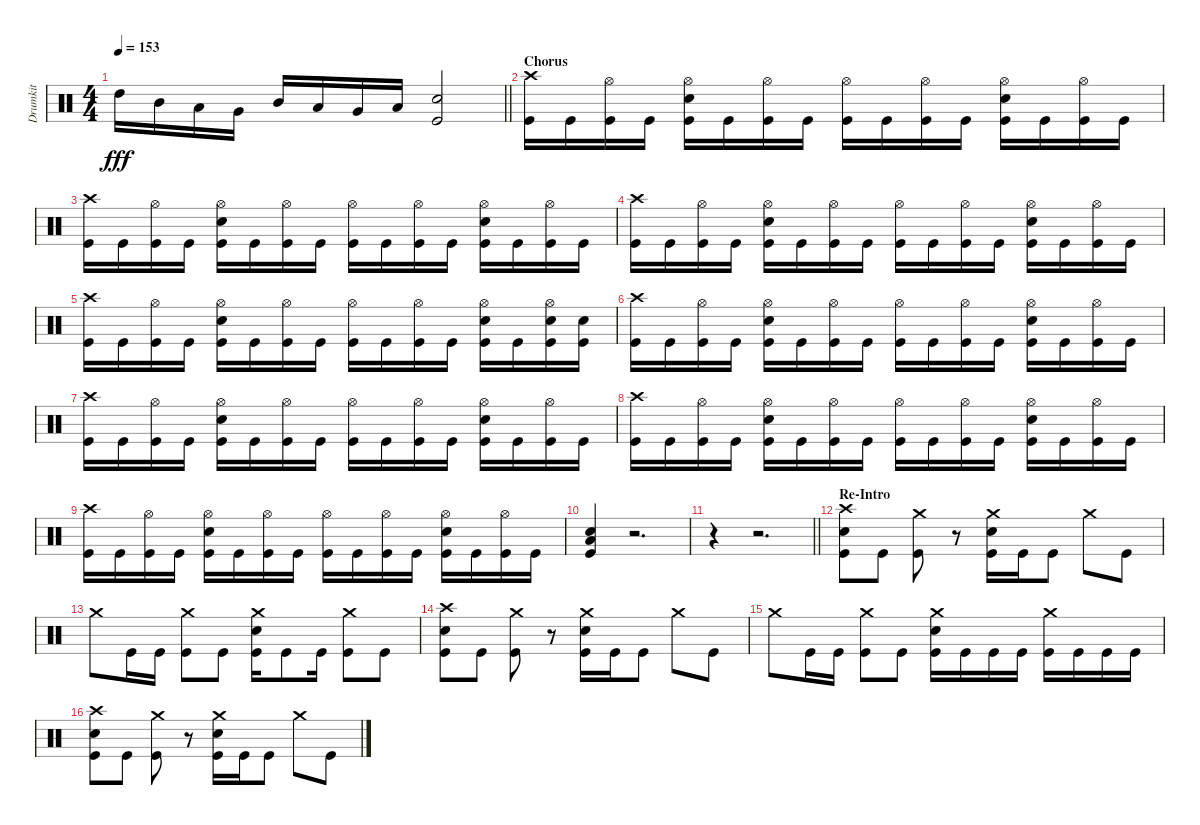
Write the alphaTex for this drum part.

\track ("Drumkit" "Drumkit") {instrument percussion}
\staff {score}
\articulation defaults
\ts (4 4)
\tempo 153
\clef neutral
\barLineRight lightlight
\ks c "High Tom (hit)".16{dy fff} "Mid Tom (hit)".16 "Low Tom (hit)".16 "Very Low Tom (hit)".16 "Mid Tom (hit)".16 "Low Tom (hit)".16 "Very Low Tom (hit)".16 "Low Floor Tom (hit)".16
("Snare (hit) 2" "Kick (hit)").2 |
\section ("" "Chorus")
("Crash high (hit)" "Kick (hit)").16 "Kick (hit)".16 ("Hi-Hat (open)" "Kick (hit)").16 "Kick (hit)".16 ("Hi-Hat (open)" "Snare (hit) 2" "Kick (hit)").16 "Kick (hit)".16 ("Hi-Hat (open)" "Kick (hit)").16 "Kick (hit)".16 ("Hi-Hat (open)" "Kick (hit)").16 "Kick (hit)".16 ("Hi-Hat (open)" "Kick (hit)").16 "Kick (hit)".16 ("Hi-Hat (open)" "Snare (hit) 2" "Kick (hit)").16 "Kick (hit)".16 ("Hi-Hat (open)" "Kick (hit)").16 "Kick (hit)".16 |
("Crash high (hit)" "Kick (hit)").16 "Kick (hit)".16 ("Hi-Hat (open)" "Kick (hit)").16 "Kick (hit)".16 ("Hi-Hat (open)" "Snare (hit) 2" "Kick (hit)").16 "Kick (hit)".16 ("Hi-Hat (open)" "Kick (hit)").16 "Kick (hit)".16 ("Hi-Hat (open)" "Kick (hit)").16 "Kick (hit)".16 ("Hi-Hat (open)" "Kick (hit)").16 "Kick (hit)".16 ("Hi-Hat (open)" "Snare (hit) 2" "Kick (hit)").16 "Kick (hit)".16 ("Hi-Hat (open)" "Kick (hit)").16 "Kick (hit)".16 |
("Crash high (hit)" "Kick (hit)").16 "Kick (hit)".16 ("Hi-Hat (open)" "Kick (hit)").16 "Kick (hit)".16 ("Hi-Hat (open)" "Snare (hit) 2" "Kick (hit)").16 "Kick (hit)".16 ("Hi-Hat (open)" "Kick (hit)").16 "Kick (hit)".16 ("Hi-Hat (open)" "Kick (hit)").16 "Kick (hit)".16 ("Hi-Hat (open)" "Kick (hit)").16 "Kick (hit)".16 ("Hi-Hat (open)" "Snare (hit) 2" "Kick (hit)").16 "Kick (hit)".16 ("Hi-Hat (open)" "Kick (hit)").16 "Kick (hit)".16 |
("Crash high (hit)" "Kick (hit)").16 "Kick (hit)".16 ("Hi-Hat (open)" "Kick (hit)").16 "Kick (hit)".16 ("Hi-Hat (open)" "Snare (hit) 2" "Kick (hit)").16 "Kick (hit)".16 ("Hi-Hat (open)" "Kick (hit)").16 "Kick (hit)".16 ("Hi-Hat (open)" "Kick (hit)").16 "Kick (hit)".16 ("Hi-Hat (open)" "Kick (hit)").16 "Kick (hit)".16 ("Hi-Hat (open)" "Snare (hit) 2" "Kick (hit)").16 "Kick (hit)".16 ("Hi-Hat (open)" "Snare (hit) 2" "Kick (hit)").16 ("Snare (hit) 2" "Kick (hit)").16 |
("Crash high (hit)" "Kick (hit)").16 "Kick (hit)".16 ("Hi-Hat (open)" "Kick (hit)").16 "Kick (hit)".16 ("Hi-Hat (open)" "Snare (hit) 2" "Kick (hit)").16 "Kick (hit)".16 ("Hi-Hat (open)" "Kick (hit)").16 "Kick (hit)".16 ("Hi-Hat (open)" "Kick (hit)").16 "Kick (hit)".16 ("Hi-Hat (open)" "Kick (hit)").16 "Kick (hit)".16 ("Hi-Hat (open)" "Snare (hit) 2" "Kick (hit)").16 "Kick (hit)".16 ("Hi-Hat (open)" "Kick (hit)").16 "Kick (hit)".16 |
("Crash high (hit)" "Kick (hit)").16 "Kick (hit)".16 ("Hi-Hat (open)" "Kick (hit)").16 "Kick (hit)".16 ("Hi-Hat (open)" "Snare (hit) 2" "Kick (hit)").16 "Kick (hit)".16 ("Hi-Hat (open)" "Kick (hit)").16 "Kick (hit)".16 ("Hi-Hat (open)" "Kick (hit)").16 "Kick (hit)".16 ("Hi-Hat (open)" "Kick (hit)").16 "Kick (hit)".16 ("Hi-Hat (open)" "Snare (hit) 2" "Kick (hit)").16 "Kick (hit)".16 ("Hi-Hat (open)" "Kick (hit)").16 "Kick (hit)".16 |
("Crash high (hit)" "Kick (hit)").16 "Kick (hit)".16 ("Hi-Hat (open)" "Kick (hit)").16 "Kick (hit)".16 ("Hi-Hat (open)" "Snare (hit) 2" "Kick (hit)").16 "Kick (hit)".16 ("Hi-Hat (open)" "Kick (hit)").16 "Kick (hit)".16 ("Hi-Hat (open)" "Kick (hit)").16 "Kick (hit)".16 ("Hi-Hat (open)" "Kick (hit)").16 "Kick (hit)".16 ("Hi-Hat (open)" "Snare (hit) 2" "Kick (hit)").16 "Kick (hit)".16 ("Hi-Hat (open)" "Kick (hit)").16 "Kick (hit)".16 |
("Crash high (hit)" "Kick (hit)").16 "Kick (hit)".16 ("Hi-Hat (open)" "Kick (hit)").16 "Kick (hit)".16 ("Hi-Hat (open)" "Snare (hit) 2" "Kick (hit)").16 "Kick (hit)".16 ("Hi-Hat (open)" "Kick (hit)").16 "Kick (hit)".16 ("Hi-Hat (open)" "Kick (hit)").16 "Kick (hit)".16 ("Hi-Hat (open)" "Kick (hit)").16 "Kick (hit)".16 ("Hi-Hat (open)" "Snare (hit) 2" "Kick (hit)").16 "Kick (hit)".16 ("Hi-Hat (open)" "Kick (hit)").16 "Kick (hit)".16 |
("Low Floor Tom (hit)" "Snare (hit) 2" "Kick (hit)").4 r.2{d} |
\barLineRight lightlight
r.4 r.2{d} |
\section ("" "Re-Intro")
("Crash high (hit)" "Snare (hit) 2" "Kick (hit)").8 "Kick (hit)".8 ("Crash medium (hit)" "Kick (hit)").8 r.8 ("Snare (hit) 2" "Crash medium (hit)" "Kick (hit)").16 "Kick (hit)".16 "Kick (hit)".8 "Crash medium (hit)".8 "Kick (hit)".8 |
"Crash medium (hit)".8 "Kick (hit)".16 "Kick (hit)".16 ("Crash medium (hit)" "Kick (hit)").8 "Kick (hit)".8 ("Snare (hit) 2" "Crash medium (hit)" "Kick (hit)").16 "Kick (hit)".8 "Kick (hit)".16 ("Crash medium (hit)" "Kick (hit)").8 "Kick (hit)".8 |
("Crash high (hit)" "Snare (hit) 2" "Kick (hit)").8 "Kick (hit)".8 ("Crash medium (hit)" "Kick (hit)").8 r.8 ("Snare (hit) 2" "Crash medium (hit)" "Kick (hit)").16 "Kick (hit)".16 "Kick (hit)".8 "Crash medium (hit)".8 "Kick (hit)".8 |
"Crash medium (hit)".8 "Kick (hit)".16 "Kick (hit)".16 ("Crash medium (hit)" "Kick (hit)").8 "Kick (hit)".8 ("Snare (hit) 2" "Crash medium (hit)" "Kick (hit)").16 "Kick (hit)".16 "Kick (hit)".16 "Kick (hit)".16 ("Crash medium (hit)" "Kick (hit)").16 "Kick (hit)".16 "Kick (hit)".16 "Kick (hit)".16 |
("Crash high (hit)" "Snare (hit) 2" "Kick (hit)").8 "Kick (hit)".8 ("Crash medium (hit)" "Kick (hit)").8 r.8 ("Snare (hit) 2" "Crash medium (hit)" "Kick (hit)").16 "Kick (hit)".16 "Kick (hit)".8 "Crash medium (hit)".8 "Kick (hit)".8
